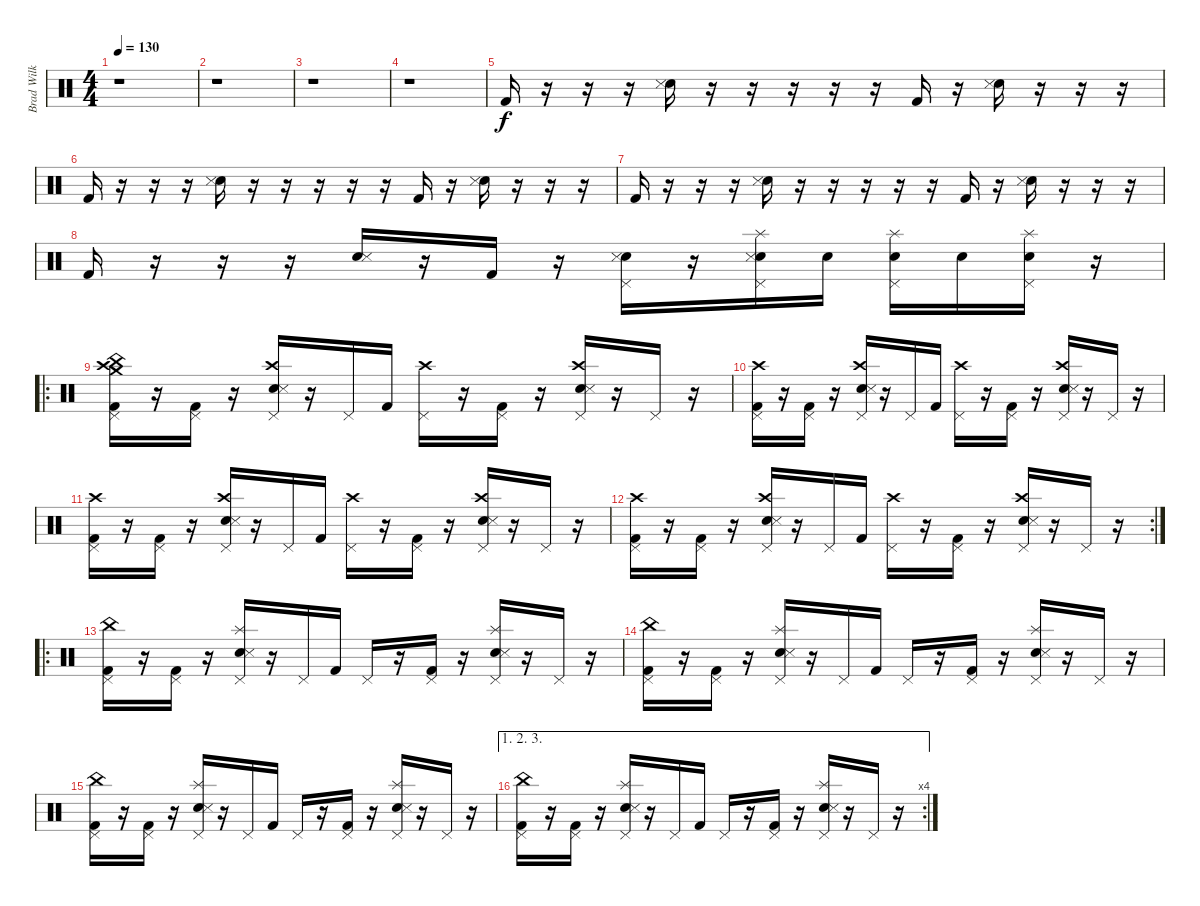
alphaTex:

\track ("Brad Wilk - Drums" "Brad Wilk ") {instrument percussion}
\staff {score}
\articulation defaults
\ts (4 4)
\tempo 130
\clef neutral
\ks c
r.1{dy f} |
r.1 |
r.1 |
r.1 |
"Kick (hit) 2".16 r.16 r.16 r.16 ("Electric Snare (hit)" "Snare (side stick) 3").16 r.16 r.16 r.16 r.16 r.16 "Kick (hit) 2".16 r.16 ("Electric Snare (hit)" "Snare (side stick) 3").16 r.16 r.16 r.16 |
"Kick (hit) 2".16 r.16 r.16 r.16 ("Electric Snare (hit)" "Snare (side stick) 3").16 r.16 r.16 r.16 r.16 r.16 "Kick (hit) 2".16 r.16 ("Electric Snare (hit)" "Snare (side stick) 3").16 r.16 r.16 r.16 |
"Kick (hit) 2".16 r.16 r.16 r.16 ("Electric Snare (hit)" "Snare (side stick) 3").16 r.16 r.16 r.16 r.16 r.16 "Kick (hit) 2".16 r.16 ("Electric Snare (hit)" "Snare (side stick) 3").16 r.16 r.16 r.16 |
"Kick (hit) 2".16 r.16 r.16 r.16 ("Electric Snare (hit)" "Snare (side stick) 3").16 r.16 "Kick (hit) 2".16 r.16 ("Electric Snare (hit)" "Snare (side stick) 3" "Pedal Hi-Hat (hit)").16 r.16 ("Electric Snare (hit)" "Snare (side stick) 3" "Splash (hit)" "Pedal Hi-Hat (hit)").16 "Electric Snare (hit)".16 ("Electric Snare (hit)" "Splash (hit)" "Pedal Hi-Hat (hit)").16 "Electric Snare (hit)".16 ("Electric Snare (hit)" "Splash (hit)" "Pedal Hi-Hat (hit)").16 r.16 |
\ro
("Kick (hit) 2" "Crash medium (hit)" "Crash high (hit)" "China (hit)" "Pedal Hi-Hat (hit)").16 r.16 ("Kick (hit) 2" "Pedal Hi-Hat (hit)").16 r.16 ("Snare (hit) 2" "Snare (side stick) 3" "Crash high (hit)" "Pedal Hi-Hat (hit)").16 r.16 "Pedal Hi-Hat (hit)".16 "Kick (hit) 2".16 ("Crash high (hit)" "Pedal Hi-Hat (hit)").16 r.16 ("Kick (hit) 2" "Pedal Hi-Hat (hit)").16 r.16 ("Snare (hit) 2" "Snare (side stick) 3" "Crash high (hit)" "Pedal Hi-Hat (hit)").16 r.16 "Pedal Hi-Hat (hit)".16 r.16 |
("Kick (hit) 2" "Crash high (hit)" "Pedal Hi-Hat (hit)").16 r.16 ("Kick (hit) 2" "Pedal Hi-Hat (hit)").16 r.16 ("Snare (hit) 2" "Snare (side stick) 3" "Crash high (hit)" "Pedal Hi-Hat (hit)").16 r.16 "Pedal Hi-Hat (hit)".16 "Kick (hit) 2".16 ("Crash high (hit)" "Pedal Hi-Hat (hit)").16 r.16 ("Kick (hit) 2" "Pedal Hi-Hat (hit)").16 r.16 ("Snare (hit) 2" "Snare (side stick) 3" "Crash high (hit)" "Pedal Hi-Hat (hit)").16 r.16 "Pedal Hi-Hat (hit)".16 r.16 |
("Kick (hit) 2" "Crash high (hit)" "Pedal Hi-Hat (hit)").16 r.16 ("Kick (hit) 2" "Pedal Hi-Hat (hit)").16 r.16 ("Snare (hit) 2" "Snare (side stick) 3" "Crash high (hit)" "Pedal Hi-Hat (hit)").16 r.16 "Pedal Hi-Hat (hit)".16 "Kick (hit) 2".16 ("Crash high (hit)" "Pedal Hi-Hat (hit)").16 r.16 ("Kick (hit) 2" "Pedal Hi-Hat (hit)").16 r.16 ("Snare (hit) 2" "Snare (side stick) 3" "Crash high (hit)" "Pedal Hi-Hat (hit)").16 r.16 "Pedal Hi-Hat (hit)".16 r.16 |
\rc 2
("Kick (hit) 2" "Crash high (hit)" "Pedal Hi-Hat (hit)").16 r.16 ("Kick (hit) 2" "Pedal Hi-Hat (hit)").16 r.16 ("Snare (hit) 2" "Snare (side stick) 3" "Crash high (hit)" "Pedal Hi-Hat (hit)").16 r.16 "Pedal Hi-Hat (hit)".16 "Kick (hit) 2".16 ("Crash high (hit)" "Pedal Hi-Hat (hit)").16 r.16 ("Kick (hit) 2" "Pedal Hi-Hat (hit)").16 r.16 ("Snare (hit) 2" "Snare (side stick) 3" "Crash high (hit)" "Pedal Hi-Hat (hit)").16 r.16 "Pedal Hi-Hat (hit)".16 r.16 |
\ro
("Kick (hit) 2" "China (hit)" "Pedal Hi-Hat (hit)").16 r.16 ("Kick (hit) 2" "Pedal Hi-Hat (hit)").16 r.16 ("Snare (hit) 2" "Snare (side stick) 3" "Splash (hit)" "Pedal Hi-Hat (hit)").16 r.16 "Pedal Hi-Hat (hit)".16 "Kick (hit) 2".16 "Pedal Hi-Hat (hit)".16 r.16 ("Kick (hit) 2" "Pedal Hi-Hat (hit)").16 r.16 ("Snare (hit) 2" "Snare (side stick) 3" "Splash (hit)" "Pedal Hi-Hat (hit)").16 r.16 "Pedal Hi-Hat (hit)".16 r.16 |
("Kick (hit) 2" "China (hit)" "Pedal Hi-Hat (hit)").16 r.16 ("Kick (hit) 2" "Pedal Hi-Hat (hit)").16 r.16 ("Snare (hit) 2" "Snare (side stick) 3" "Splash (hit)" "Pedal Hi-Hat (hit)").16 r.16 "Pedal Hi-Hat (hit)".16 "Kick (hit) 2".16 "Pedal Hi-Hat (hit)".16 r.16 ("Kick (hit) 2" "Pedal Hi-Hat (hit)").16 r.16 ("Snare (hit) 2" "Snare (side stick) 3" "Splash (hit)" "Pedal Hi-Hat (hit)").16 r.16 "Pedal Hi-Hat (hit)".16 r.16 |
("Kick (hit) 2" "China (hit)" "Pedal Hi-Hat (hit)").16 r.16 ("Kick (hit) 2" "Pedal Hi-Hat (hit)").16 r.16 ("Snare (hit) 2" "Snare (side stick) 3" "Splash (hit)" "Pedal Hi-Hat (hit)").16 r.16 "Pedal Hi-Hat (hit)".16 "Kick (hit) 2".16 "Pedal Hi-Hat (hit)".16 r.16 ("Kick (hit) 2" "Pedal Hi-Hat (hit)").16 r.16 ("Snare (hit) 2" "Snare (side stick) 3" "Splash (hit)" "Pedal Hi-Hat (hit)").16 r.16 "Pedal Hi-Hat (hit)".16 r.16 |
\ae (1 2 3)
\rc 4
("Kick (hit) 2" "China (hit)" "Pedal Hi-Hat (hit)").16 r.16 ("Kick (hit) 2" "Pedal Hi-Hat (hit)").16 r.16 ("Snare (hit) 2" "Snare (side stick) 3" "Splash (hit)" "Pedal Hi-Hat (hit)").16 r.16 "Pedal Hi-Hat (hit)".16 "Kick (hit) 2".16 "Pedal Hi-Hat (hit)".16 r.16 ("Kick (hit) 2" "Pedal Hi-Hat (hit)").16 r.16 ("Snare (hit) 2" "Snare (side stick) 3" "Splash (hit)" "Pedal Hi-Hat (hit)").16 r.16 "Pedal Hi-Hat (hit)".16 r.16
